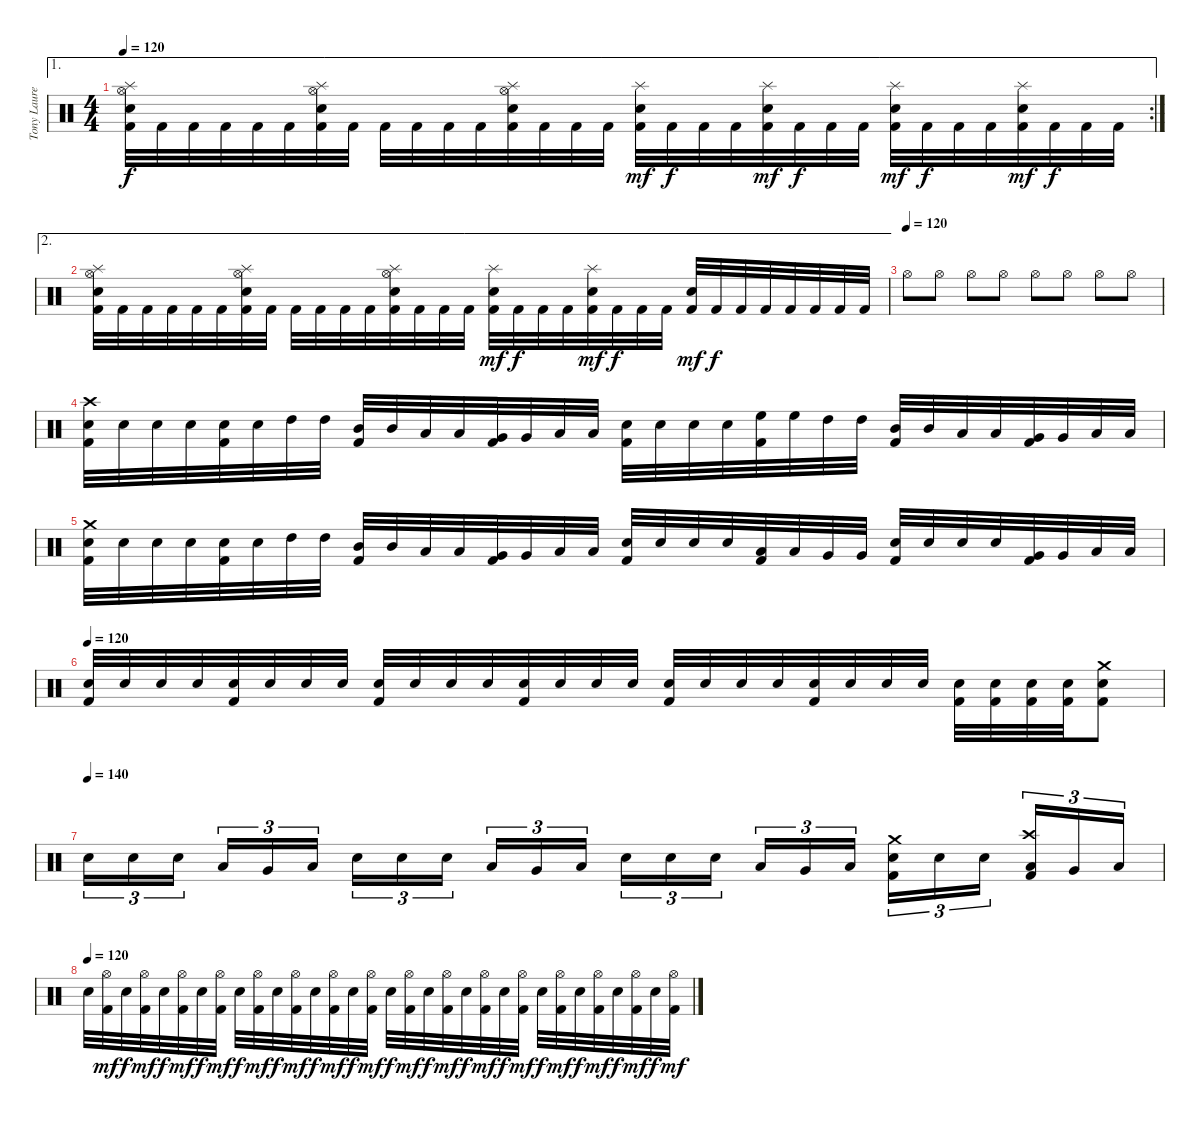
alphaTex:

\track ("Tony Laureano" "Tony Laure") {instrument percussion}
\staff {score}
\articulation defaults
\ae 1
\rc 2
\ts (4 4)
\tempo 120
\clef neutral
\ks c
("Splash (hit)" "Hi-Hat (open)" "Electric Snare (hit)" "Kick (hit) 2").32{dy f} "Kick (hit) 2".32 "Kick (hit) 2".32 "Kick (hit) 2".32 "Kick (hit) 2".32 "Kick (hit) 2".32 ("Splash (hit)" "Hi-Hat (open)" "Electric Snare (hit)" "Kick (hit) 2").32 "Kick (hit) 2".32 "Kick (hit) 2".32 "Kick (hit) 2".32 "Kick (hit) 2".32 "Kick (hit) 2".32 ("Splash (hit)" "Hi-Hat (open)" "Electric Snare (hit)" "Kick (hit) 2").32 "Kick (hit) 2".32 "Kick (hit) 2".32 "Kick (hit) 2".32 ("Splash (hit)" "Electric Snare (hit)" "Kick (hit) 2").32{dy mf} "Kick (hit) 2".32{dy f} "Kick (hit) 2".32 "Kick (hit) 2".32 ("Splash (hit)" "Electric Snare (hit)" "Kick (hit) 2").32{dy mf} "Kick (hit) 2".32{dy f} "Kick (hit) 2".32 "Kick (hit) 2".32 ("Splash (hit)" "Electric Snare (hit)" "Kick (hit) 2").32{dy mf} "Kick (hit) 2".32{dy f} "Kick (hit) 2".32 "Kick (hit) 2".32 ("Splash (hit)" "Electric Snare (hit)" "Kick (hit) 2").32{dy mf} "Kick (hit) 2".32{dy f} "Kick (hit) 2".32 "Kick (hit) 2".32 |
\ae 2
("Splash (hit)" "Hi-Hat (open)" "Electric Snare (hit)" "Kick (hit) 2").32 "Kick (hit) 2".32 "Kick (hit) 2".32 "Kick (hit) 2".32 "Kick (hit) 2".32 "Kick (hit) 2".32 ("Splash (hit)" "Hi-Hat (open)" "Electric Snare (hit)" "Kick (hit) 2").32 "Kick (hit) 2".32 "Kick (hit) 2".32 "Kick (hit) 2".32 "Kick (hit) 2".32 "Kick (hit) 2".32 ("Splash (hit)" "Hi-Hat (open)" "Electric Snare (hit)" "Kick (hit) 2").32 "Kick (hit) 2".32 "Kick (hit) 2".32 "Kick (hit) 2".32 ("Splash (hit)" "Electric Snare (hit)" "Kick (hit) 2").32{dy mf} "Kick (hit) 2".32{dy f} "Kick (hit) 2".32 "Kick (hit) 2".32 ("Splash (hit)" "Electric Snare (hit)" "Kick (hit) 2").32{dy mf} "Kick (hit) 2".32{dy f} "Kick (hit) 2".32 "Kick (hit) 2".32 ("Electric Snare (hit)" "Kick (hit) 2").32{dy mf} "Kick (hit) 2".32{dy f} "Kick (hit) 2".32 "Kick (hit) 2".32 "Kick (hit) 2".32 "Kick (hit) 2".32 "Kick (hit) 2".32 "Kick (hit) 2".32 |
\tempo (120)
"Hi-Hat (open)".8 "Hi-Hat (open)".8 "Hi-Hat (open)".8 "Hi-Hat (open)".8 "Hi-Hat (open)".8 "Hi-Hat (open)".8 "Hi-Hat (open)".8 "Hi-Hat (open)".8 |
("Crash high (hit)" "Electric Snare (hit)" "Kick (hit) 2").32 "Electric Snare (hit)".32 "Electric Snare (hit)".32 "Electric Snare (hit)".32 ("Electric Snare (hit)" "Kick (hit) 2").32 "Electric Snare (hit)".32 "High Tom (hit)".32 "High Tom (hit)".32 ("Mid Tom (hit)" "Kick (hit) 2").32 "Mid Tom (hit)".32 "Low Tom (hit)".32 "Low Tom (hit)".32 ("Very Low Tom (hit)" "Kick (hit) 2").32 "Very Low Tom (hit)".32 "Low Floor Tom (hit)".32 "Low Floor Tom (hit)".32 ("Electric Snare (hit)" "Kick (hit) 2").32 "Electric Snare (hit)".32 "Electric Snare (hit)".32 "Electric Snare (hit)".32 ("High Floor Tom (hit)" "Kick (hit) 2").32 "High Floor Tom (hit)".32 "High Tom (hit)".32 "High Tom (hit)".32 ("Mid Tom (hit)" "Kick (hit) 2").32 "Mid Tom (hit)".32 "Low Tom (hit)".32 "Low Tom (hit)".32 ("Very Low Tom (hit)" "Kick (hit) 2").32 "Very Low Tom (hit)".32 "Low Floor Tom (hit)".32 "Low Floor Tom (hit)".32 |
("Crash medium (hit)" "Electric Snare (hit)" "Kick (hit) 2").32 "Electric Snare (hit)".32 "Electric Snare (hit)".32 "Electric Snare (hit)".32 ("Electric Snare (hit)" "Kick (hit) 2").32 "Electric Snare (hit)".32 "High Tom (hit)".32 "High Tom (hit)".32 ("Mid Tom (hit)" "Kick (hit) 2").32 "Mid Tom (hit)".32 "Low Tom (hit)".32 "Low Tom (hit)".32 ("Very Low Tom (hit)" "Kick (hit) 2").32 "Very Low Tom (hit)".32 "Low Floor Tom (hit)".32 "Low Floor Tom (hit)".32 ("Electric Snare (hit)" "Kick (hit) 2").32 "Electric Snare (hit)".32 "Electric Snare (hit)".32 "Electric Snare (hit)".32 ("Low Tom (hit)" "Kick (hit) 2").32 "Low Tom (hit)".32 "Very Low Tom (hit)".32 "Very Low Tom (hit)".32 ("Electric Snare (hit)" "Kick (hit) 2").32 "Electric Snare (hit)".32 "Electric Snare (hit)".32 "Electric Snare (hit)".32 ("Very Low Tom (hit)" "Kick (hit) 2").32 "Very Low Tom (hit)".32 "Low Floor Tom (hit)".32 "Low Floor Tom (hit)".32 |
\tempo 120
("Electric Snare (hit)" "Kick (hit) 2").32 "Electric Snare (hit)".32 "Electric Snare (hit)".32 "Electric Snare (hit)".32 ("Electric Snare (hit)" "Kick (hit) 2").32 "Electric Snare (hit)".32 "Electric Snare (hit)".32 "Electric Snare (hit)".32 ("Electric Snare (hit)" "Kick (hit) 2").32 "Electric Snare (hit)".32 "Electric Snare (hit)".32 "Electric Snare (hit)".32 ("Electric Snare (hit)" "Kick (hit) 2").32 "Electric Snare (hit)".32 "Electric Snare (hit)".32 "Electric Snare (hit)".32 ("Electric Snare (hit)" "Kick (hit) 2").32 "Electric Snare (hit)".32 "Electric Snare (hit)".32 "Electric Snare (hit)".32 ("Electric Snare (hit)" "Kick (hit) 2").32 "Electric Snare (hit)".32 "Electric Snare (hit)".32 "Electric Snare (hit)".32 ("Electric Snare (hit)" "Kick (hit) 2").32 ("Electric Snare (hit)" "Kick (hit) 2").32 ("Electric Snare (hit)" "Kick (hit) 2").32 ("Electric Snare (hit)" "Kick (hit) 2").32 ("Crash medium (hit)" "Electric Snare (hit)" "Kick (hit) 2").8 |
\tempo (140)
"Electric Snare (hit)".16{tu (3 2)} "Electric Snare (hit)".16{tu (3 2)} "Electric Snare (hit)".16{tu (3 2)} "Low Tom (hit)".16{tu (3 2)} "Very Low Tom (hit)".16{tu (3 2)} "Low Floor Tom (hit)".16{tu (3 2)} "Electric Snare (hit)".16{tu (3 2)} "Electric Snare (hit)".16{tu (3 2)} "Electric Snare (hit)".16{tu (3 2)} "Low Tom (hit)".16{tu (3 2)} "Very Low Tom (hit)".16{tu (3 2)} "Low Floor Tom (hit)".16{tu (3 2)} "Electric Snare (hit)".16{tu (3 2)} "Electric Snare (hit)".16{tu (3 2)} "Electric Snare (hit)".16{tu (3 2)} "Low Tom (hit)".16{tu (3 2)} "Very Low Tom (hit)".16{tu (3 2)} "Low Floor Tom (hit)".16{tu (3 2)} ("Crash medium (hit)" "Electric Snare (hit)" "Kick (hit) 2").16{tu (3 2)} "Electric Snare (hit)".16{tu (3 2)} "Electric Snare (hit)".16{tu (3 2)} ("Crash high (hit)" "Low Tom (hit)" "Kick (hit) 2").16{tu (3 2)} "Very Low Tom (hit)".16{tu (3 2)} "Low Floor Tom (hit)".16{tu (3 2)} |
\tempo (120)
"Electric Snare (hit)".32 ("Hi-Hat (open)" "Kick (hit) 2").32{dy mf} "Electric Snare (hit)".32{dy f} ("Hi-Hat (open)" "Kick (hit) 2").32{dy mf} "Electric Snare (hit)".32{dy f} ("Hi-Hat (open)" "Kick (hit) 2").32{dy mf} "Electric Snare (hit)".32{dy f} ("Hi-Hat (open)" "Kick (hit) 2").32{dy mf} "Electric Snare (hit)".32{dy f} ("Hi-Hat (open)" "Kick (hit) 2").32{dy mf} "Electric Snare (hit)".32{dy f} ("Hi-Hat (open)" "Kick (hit) 2").32{dy mf} "Electric Snare (hit)".32{dy f} ("Hi-Hat (open)" "Kick (hit) 2").32{dy mf} "Electric Snare (hit)".32{dy f} ("Hi-Hat (open)" "Kick (hit) 2").32{dy mf} "Electric Snare (hit)".32{dy f} ("Hi-Hat (open)" "Kick (hit) 2").32{dy mf} "Electric Snare (hit)".32{dy f} ("Hi-Hat (open)" "Kick (hit) 2").32{dy mf} "Electric Snare (hit)".32{dy f} ("Hi-Hat (open)" "Kick (hit) 2").32{dy mf} "Electric Snare (hit)".32{dy f} ("Hi-Hat (open)" "Kick (hit) 2").32{dy mf} "Electric Snare (hit)".32{dy f} ("Hi-Hat (open)" "Kick (hit) 2").32{dy mf} "Electric Snare (hit)".32{dy f} ("Hi-Hat (open)" "Kick (hit) 2").32{dy mf} "Electric Snare (hit)".32{dy f} ("Hi-Hat (open)" "Kick (hit) 2").32{dy mf} "Electric Snare (hit)".32{dy f} ("Hi-Hat (open)" "Kick (hit) 2").32{dy mf}
